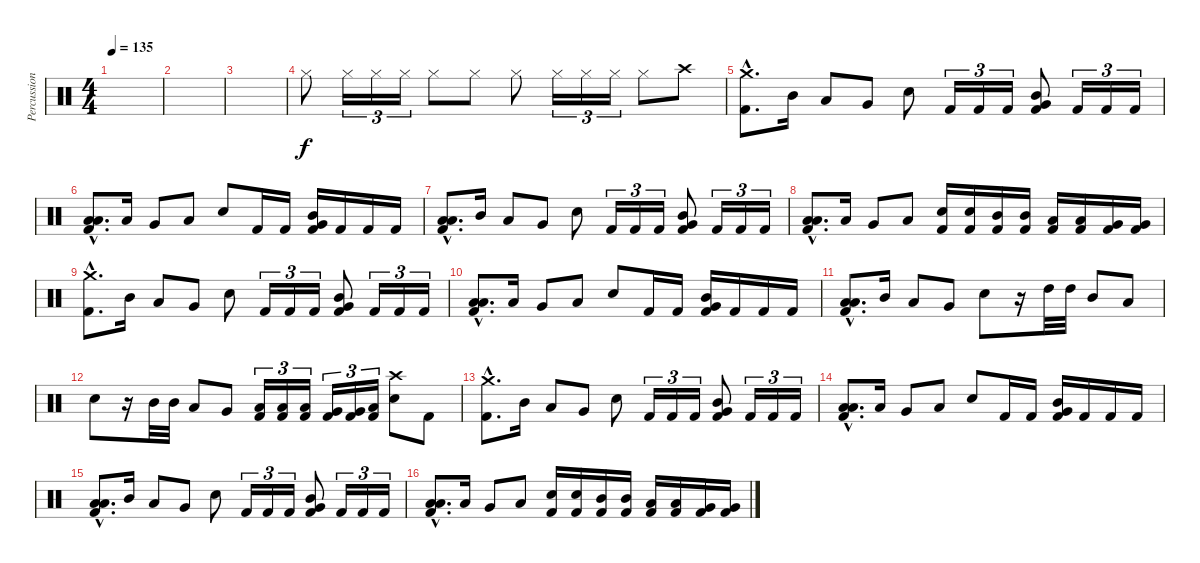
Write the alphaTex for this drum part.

\track ("Percussion" "Percussion") {instrument percussion}
\staff {score}
\articulation defaults
\ts (4 4)
\tempo 135
\clef neutral
\ks c
|
|
|
"Hi-Hat (closed)".8 "Hi-Hat (closed)".16{tu (3 2)} "Hi-Hat (closed)".16{tu (3 2)} "Hi-Hat (closed)".16{tu (3 2)} "Hi-Hat (closed)".8 "Hi-Hat (closed)".8 "Hi-Hat (closed)".8 "Hi-Hat (closed)".16{tu (3 2)} "Hi-Hat (closed)".16{tu (3 2)} "Hi-Hat (closed)".16{tu (3 2)} "Hi-Hat (closed)".8 "Crash high (hit)".8 |
("Crash medium (hit)"{hac} "Kick (hit) 2"{hac}).8{d} "Mid Tom (hit)".16 "Low Tom (hit)".8 "Very Low Tom (hit)".8 "Electric Snare (hit)".8 "Kick (hit) 2".16{tu (3 2)} "Kick (hit) 2".16{tu (3 2)} "Kick (hit) 2".16{tu (3 2)} ("Mid Tom (hit)" "Very Low Tom (hit)" "Kick (hit) 2").8 "Kick (hit) 2".16{tu (3 2)} "Kick (hit) 2".16{tu (3 2)} "Kick (hit) 2".16{tu (3 2)} |
("Low Tom (hit)"{hac} "Low Floor Tom (hit)"{hac} "Kick (hit) 2"{hac}).8{d} "Low Tom (hit)".16 "Very Low Tom (hit)".8 "Low Floor Tom (hit)".8 "Electric Snare (hit)".8 "Kick (hit) 2".16 "Kick (hit) 2".16 ("Mid Tom (hit)" "Very Low Tom (hit)" "Kick (hit) 2").16 "Kick (hit) 2".16 "Kick (hit) 2".16 "Kick (hit) 2".16 |
("Low Tom (hit)"{hac} "Low Floor Tom (hit)"{hac} "Kick (hit) 2"{hac}).8{d} "Mid Tom (hit)".16 "Low Tom (hit)".8 "Very Low Tom (hit)".8 "Electric Snare (hit)".8 "Kick (hit) 2".16{tu (3 2)} "Kick (hit) 2".16{tu (3 2)} "Kick (hit) 2".16{tu (3 2)} ("Mid Tom (hit)" "Very Low Tom (hit)" "Kick (hit) 2").8 "Kick (hit) 2".16{tu (3 2)} "Kick (hit) 2".16{tu (3 2)} "Kick (hit) 2".16{tu (3 2)} |
("Low Tom (hit)"{hac} "Low Floor Tom (hit)"{hac} "Kick (hit) 2"{hac}).8{d} "Low Tom (hit)".16 "Very Low Tom (hit)".8 "Low Floor Tom (hit)".8 ("Electric Snare (hit)" "Kick (hit) 2").16 ("Electric Snare (hit)" "Kick (hit) 2").16 ("Mid Tom (hit)" "Kick (hit) 2").16 ("Mid Tom (hit)" "Kick (hit) 2").16 ("Low Tom (hit)" "Kick (hit) 2").16 ("Low Tom (hit)" "Kick (hit) 2").16 ("Very Low Tom (hit)" "Kick (hit) 2").16 ("Very Low Tom (hit)" "Kick (hit) 2").16 |
("Crash medium (hit)"{hac} "Kick (hit) 2"{hac}).8{d} "Mid Tom (hit)".16 "Low Tom (hit)".8 "Very Low Tom (hit)".8 "Electric Snare (hit)".8 "Kick (hit) 2".16{tu (3 2)} "Kick (hit) 2".16{tu (3 2)} "Kick (hit) 2".16{tu (3 2)} ("Mid Tom (hit)" "Very Low Tom (hit)" "Kick (hit) 2").8 "Kick (hit) 2".16{tu (3 2)} "Kick (hit) 2".16{tu (3 2)} "Kick (hit) 2".16{tu (3 2)} |
("Low Tom (hit)"{hac} "Low Floor Tom (hit)"{hac} "Kick (hit) 2"{hac}).8{d} "Low Tom (hit)".16 "Very Low Tom (hit)".8 "Low Floor Tom (hit)".8 "Electric Snare (hit)".8 "Kick (hit) 2".16 "Kick (hit) 2".16 ("Mid Tom (hit)" "Very Low Tom (hit)" "Kick (hit) 2").16 "Kick (hit) 2".16 "Kick (hit) 2".16 "Kick (hit) 2".16 |
("Low Tom (hit)"{hac} "Low Floor Tom (hit)"{hac} "Kick (hit) 2"{hac}).8{d} "Mid Tom (hit)".16 "Low Tom (hit)".8 "Very Low Tom (hit)".8 "Electric Snare (hit)".8 r.16 "High Tom (hit)".32 "High Tom (hit)".32 "Mid Tom (hit)".8 "Low Tom (hit)".8 |
"Electric Snare (hit)".8 r.16 "Mid Tom (hit)".32 "Mid Tom (hit)".32 "Low Tom (hit)".8 "Very Low Tom (hit)".8 ("Low Tom (hit)" "Kick (hit) 2").16{tu (3 2)} ("Low Tom (hit)" "Kick (hit) 2").16{tu (3 2)} ("Low Tom (hit)" "Kick (hit) 2").16{tu (3 2)} ("Very Low Tom (hit)" "Kick (hit) 2").16{tu (3 2)} ("Very Low Tom (hit)" "Kick (hit) 2").16{tu (3 2)} ("Low Floor Tom (hit)" "Kick (hit) 2").16{tu (3 2)} ("Crash high (hit)" "Electric Snare (hit)").8 "Kick (hit) 2".8 |
("Crash medium (hit)"{hac} "Kick (hit) 2"{hac}).8{d} "Mid Tom (hit)".16 "Low Tom (hit)".8 "Very Low Tom (hit)".8 "Electric Snare (hit)".8 "Kick (hit) 2".16{tu (3 2)} "Kick (hit) 2".16{tu (3 2)} "Kick (hit) 2".16{tu (3 2)} ("Mid Tom (hit)" "Very Low Tom (hit)" "Kick (hit) 2").8 "Kick (hit) 2".16{tu (3 2)} "Kick (hit) 2".16{tu (3 2)} "Kick (hit) 2".16{tu (3 2)} |
("Low Tom (hit)"{hac} "Low Floor Tom (hit)"{hac} "Kick (hit) 2"{hac}).8{d} "Low Tom (hit)".16 "Very Low Tom (hit)".8 "Low Floor Tom (hit)".8 "Electric Snare (hit)".8 "Kick (hit) 2".16 "Kick (hit) 2".16 ("Mid Tom (hit)" "Very Low Tom (hit)" "Kick (hit) 2").16 "Kick (hit) 2".16 "Kick (hit) 2".16 "Kick (hit) 2".16 |
("Low Tom (hit)"{hac} "Low Floor Tom (hit)"{hac} "Kick (hit) 2"{hac}).8{d} "Mid Tom (hit)".16 "Low Tom (hit)".8 "Very Low Tom (hit)".8 "Electric Snare (hit)".8 "Kick (hit) 2".16{tu (3 2)} "Kick (hit) 2".16{tu (3 2)} "Kick (hit) 2".16{tu (3 2)} ("Mid Tom (hit)" "Very Low Tom (hit)" "Kick (hit) 2").8 "Kick (hit) 2".16{tu (3 2)} "Kick (hit) 2".16{tu (3 2)} "Kick (hit) 2".16{tu (3 2)} |
("Low Tom (hit)"{hac} "Low Floor Tom (hit)"{hac} "Kick (hit) 2"{hac}).8{d} "Low Tom (hit)".16 "Very Low Tom (hit)".8 "Low Floor Tom (hit)".8 ("Electric Snare (hit)" "Kick (hit) 2").16 ("Electric Snare (hit)" "Kick (hit) 2").16 ("Mid Tom (hit)" "Kick (hit) 2").16 ("Mid Tom (hit)" "Kick (hit) 2").16 ("Low Tom (hit)" "Kick (hit) 2").16 ("Low Tom (hit)" "Kick (hit) 2").16 ("Very Low Tom (hit)" "Kick (hit) 2").16 ("Very Low Tom (hit)" "Kick (hit) 2").16
